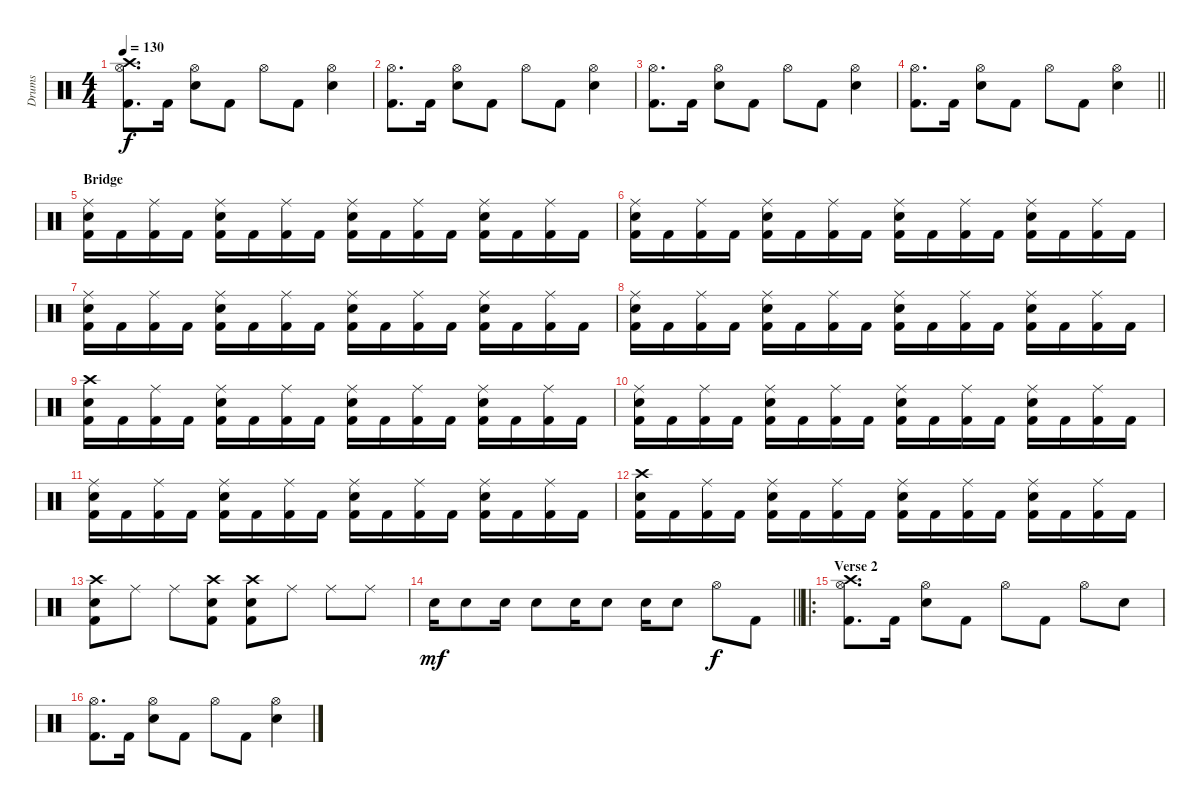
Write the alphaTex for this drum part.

\track ("Drums" "Drums") {instrument percussion}
\staff {score}
\articulation defaults
\ts (4 4)
\tempo 130
\clef neutral
\ks c
("Crash high (hit)" "Hi-Hat (open)" "Kick (hit) 2").8{d dy f} "Kick (hit) 2".16 ("Snare (hit) 2" "Hi-Hat (open)").8 "Kick (hit) 2".8 "Hi-Hat (open)".8 "Kick (hit) 2".8 ("Snare (hit) 2" "Hi-Hat (open)").4 |
("Hi-Hat (open)" "Kick (hit) 2").8{d} "Kick (hit) 2".16 ("Snare (hit) 2" "Hi-Hat (open)").8 "Kick (hit) 2".8 "Hi-Hat (open)".8 "Kick (hit) 2".8 ("Snare (hit) 2" "Hi-Hat (open)").4 |
("Hi-Hat (open)" "Kick (hit) 2").8{d} "Kick (hit) 2".16 ("Snare (hit) 2" "Hi-Hat (open)").8 "Kick (hit) 2".8 "Hi-Hat (open)".8 "Kick (hit) 2".8 ("Snare (hit) 2" "Hi-Hat (open)").4 |
\barLineRight lightlight
("Hi-Hat (open)" "Kick (hit) 2").8{d} "Kick (hit) 2".16 ("Snare (hit) 2" "Hi-Hat (open)").8 "Kick (hit) 2".8 "Hi-Hat (open)".8 "Kick (hit) 2".8 ("Snare (hit) 2" "Hi-Hat (open)").4 |
\section ("" "Bridge")
("Ride (middle)" "Snare (hit) 2" "Kick (hit) 2").16 "Kick (hit) 2".16 ("Ride (middle)" "Kick (hit) 2").16 "Kick (hit) 2".16 ("Ride (middle)" "Snare (hit) 2" "Kick (hit) 2").16 "Kick (hit) 2".16 ("Ride (middle)" "Kick (hit) 2").16 "Kick (hit) 2".16 ("Ride (middle)" "Snare (hit) 2" "Kick (hit) 2").16 "Kick (hit) 2".16 ("Ride (middle)" "Kick (hit) 2").16 "Kick (hit) 2".16 ("Ride (middle)" "Snare (hit) 2" "Kick (hit) 2").16 "Kick (hit) 2".16 ("Ride (middle)" "Kick (hit) 2").16 "Kick (hit) 2".16 |
("Ride (middle)" "Snare (hit) 2" "Kick (hit) 2").16 "Kick (hit) 2".16 ("Ride (middle)" "Kick (hit) 2").16 "Kick (hit) 2".16 ("Ride (middle)" "Snare (hit) 2" "Kick (hit) 2").16 "Kick (hit) 2".16 ("Ride (middle)" "Kick (hit) 2").16 "Kick (hit) 2".16 ("Ride (middle)" "Snare (hit) 2" "Kick (hit) 2").16 "Kick (hit) 2".16 ("Ride (middle)" "Kick (hit) 2").16 "Kick (hit) 2".16 ("Ride (middle)" "Snare (hit) 2" "Kick (hit) 2").16 "Kick (hit) 2".16 ("Ride (middle)" "Kick (hit) 2").16 "Kick (hit) 2".16 |
("Ride (middle)" "Snare (hit) 2" "Kick (hit) 2").16 "Kick (hit) 2".16 ("Ride (middle)" "Kick (hit) 2").16 "Kick (hit) 2".16 ("Ride (middle)" "Snare (hit) 2" "Kick (hit) 2").16 "Kick (hit) 2".16 ("Ride (middle)" "Kick (hit) 2").16 "Kick (hit) 2".16 ("Ride (middle)" "Snare (hit) 2" "Kick (hit) 2").16 "Kick (hit) 2".16 ("Ride (middle)" "Kick (hit) 2").16 "Kick (hit) 2".16 ("Ride (middle)" "Snare (hit) 2" "Kick (hit) 2").16 "Kick (hit) 2".16 ("Ride (middle)" "Kick (hit) 2").16 "Kick (hit) 2".16 |
("Ride (middle)" "Snare (hit) 2" "Kick (hit) 2").16 "Kick (hit) 2".16 ("Ride (middle)" "Kick (hit) 2").16 "Kick (hit) 2".16 ("Ride (middle)" "Snare (hit) 2" "Kick (hit) 2").16 "Kick (hit) 2".16 ("Ride (middle)" "Kick (hit) 2").16 "Kick (hit) 2".16 ("Ride (middle)" "Snare (hit) 2" "Kick (hit) 2").16 "Kick (hit) 2".16 ("Ride (middle)" "Kick (hit) 2").16 "Kick (hit) 2".16 ("Ride (middle)" "Snare (hit) 2" "Kick (hit) 2").16 "Kick (hit) 2".16 ("Ride (middle)" "Kick (hit) 2").16 "Kick (hit) 2".16 |
("Crash high (hit)" "Snare (hit) 2" "Kick (hit) 2").16 "Kick (hit) 2".16 ("Ride (middle)" "Kick (hit) 2").16 "Kick (hit) 2".16 ("Ride (middle)" "Snare (hit) 2" "Kick (hit) 2").16 "Kick (hit) 2".16 ("Ride (middle)" "Kick (hit) 2").16 "Kick (hit) 2".16 ("Ride (middle)" "Snare (hit) 2" "Kick (hit) 2").16 "Kick (hit) 2".16 ("Ride (middle)" "Kick (hit) 2").16 "Kick (hit) 2".16 ("Ride (middle)" "Snare (hit) 2" "Kick (hit) 2").16 "Kick (hit) 2".16 ("Ride (middle)" "Kick (hit) 2").16 "Kick (hit) 2".16 |
("Ride (middle)" "Snare (hit) 2" "Kick (hit) 2").16 "Kick (hit) 2".16 ("Ride (middle)" "Kick (hit) 2").16 "Kick (hit) 2".16 ("Ride (middle)" "Snare (hit) 2" "Kick (hit) 2").16 "Kick (hit) 2".16 ("Ride (middle)" "Kick (hit) 2").16 "Kick (hit) 2".16 ("Ride (middle)" "Snare (hit) 2" "Kick (hit) 2").16 "Kick (hit) 2".16 ("Ride (middle)" "Kick (hit) 2").16 "Kick (hit) 2".16 ("Ride (middle)" "Snare (hit) 2" "Kick (hit) 2").16 "Kick (hit) 2".16 ("Ride (middle)" "Kick (hit) 2").16 "Kick (hit) 2".16 |
("Ride (middle)" "Snare (hit) 2" "Kick (hit) 2").16 "Kick (hit) 2".16 ("Ride (middle)" "Kick (hit) 2").16 "Kick (hit) 2".16 ("Ride (middle)" "Snare (hit) 2" "Kick (hit) 2").16 "Kick (hit) 2".16 ("Ride (middle)" "Kick (hit) 2").16 "Kick (hit) 2".16 ("Ride (middle)" "Snare (hit) 2" "Kick (hit) 2").16 "Kick (hit) 2".16 ("Ride (middle)" "Kick (hit) 2").16 "Kick (hit) 2".16 ("Ride (middle)" "Snare (hit) 2" "Kick (hit) 2").16 "Kick (hit) 2".16 ("Ride (middle)" "Kick (hit) 2").16 "Kick (hit) 2".16 |
("Crash high (hit)" "Snare (hit) 2" "Kick (hit) 2").16 "Kick (hit) 2".16 ("Ride (middle)" "Kick (hit) 2").16 "Kick (hit) 2".16 ("Ride (middle)" "Snare (hit) 2" "Kick (hit) 2").16 "Kick (hit) 2".16 ("Ride (middle)" "Kick (hit) 2").16 "Kick (hit) 2".16 ("Ride (middle)" "Snare (hit) 2" "Kick (hit) 2").16 "Kick (hit) 2".16 ("Ride (middle)" "Kick (hit) 2").16 "Kick (hit) 2".16 ("Ride (middle)" "Snare (hit) 2" "Kick (hit) 2").16 "Kick (hit) 2".16 ("Ride (middle)" "Kick (hit) 2").16 "Kick (hit) 2".16 |
("Crash high (hit)" "Snare (hit) 2" "Kick (hit) 2").8 "Ride (middle)".8 "Ride (middle)".8 ("Crash high (hit)" "Snare (hit) 2" "Kick (hit) 2").8 ("Crash high (hit)" "Snare (hit) 2" "Kick (hit) 2").8 "Ride (middle)".8 "Ride (middle)".8 "Ride (middle)".8 |
\barLineRight lightlight "Snare (hit) 2".16{dy mf} "Snare (hit) 2".8 "Snare (hit) 2".16 "Snare (hit) 2".8 "Snare (hit) 2".16 "Snare (hit) 2".8 "Snare (hit) 2".16 "Snare (hit) 2".8 "Hi-Hat (open)".8{dy f} "Kick (hit) 2".8
|
\ro
\section ("" "Verse 2")
("Crash high (hit)" "Hi-Hat (open)" "Kick (hit) 2").8{d} "Kick (hit) 2".16 ("Snare (hit) 2" "Hi-Hat (open)").8 "Kick (hit) 2".8 "Hi-Hat (open)".8 "Kick (hit) 2".8 "Hi-Hat (open)".8 "Snare (hit) 2".8 |
("Hi-Hat (open)" "Kick (hit) 2").8{d} "Kick (hit) 2".16 ("Snare (hit) 2" "Hi-Hat (open)").8 "Kick (hit) 2".8 "Hi-Hat (open)".8 "Kick (hit) 2".8 ("Snare (hit) 2" "Hi-Hat (open)").4
